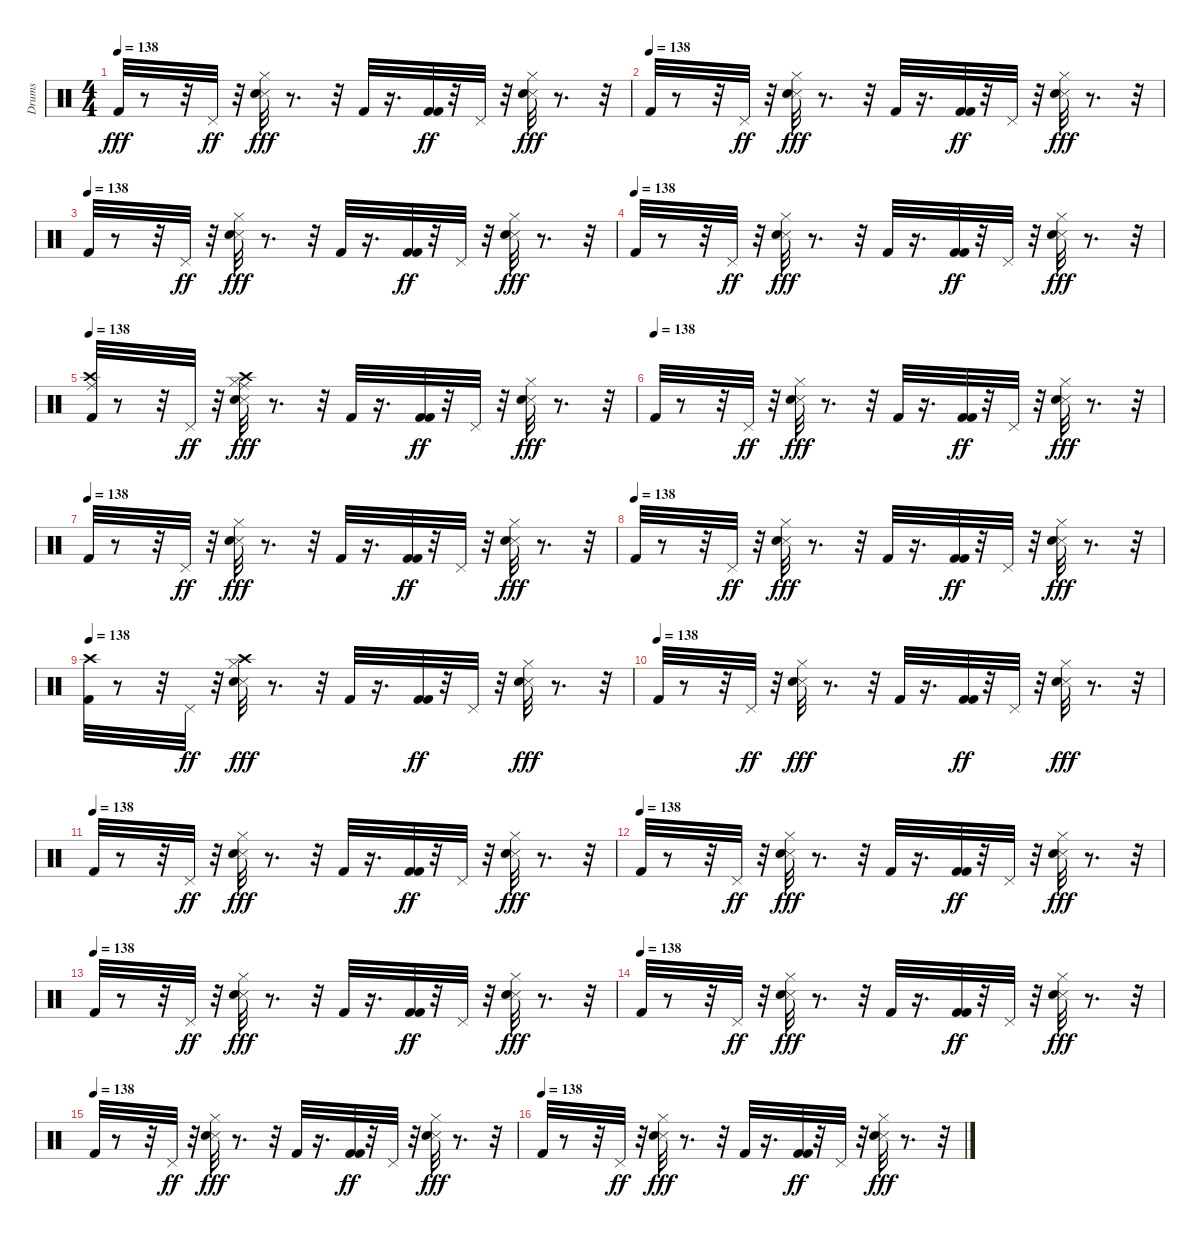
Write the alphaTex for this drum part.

\track ("Drums" "Drums") {instrument percussion}
\staff {score}
\articulation defaults
\ts (4 4)
\tempo 138
\clef neutral
\ks c "Kick (hit) 2".32{dy fff volume 10}
r.8 r.32 "Pedal Hi-Hat (hit)".32{dy ff} r.32 ("Snare (side stick) 3" "Snare (hit) 2" "Hi-Hat (closed)").32{dy fff} r.8{d} r.32 "Kick (hit) 2".32 r.16{d} ("Kick (hit) 2" "Kick (hit) 2").32{dy ff} r.32 "Pedal Hi-Hat (hit)".32 r.32 ("Snare (side stick) 3" "Snare (hit) 2" "Hi-Hat (closed)").32{dy fff} r.8{d} r.32 |
\tempo (138)
"Kick (hit) 2".32{volume 10} r.8 r.32 "Pedal Hi-Hat (hit)".32{dy ff} r.32 ("Snare (side stick) 3" "Snare (hit) 2" "Hi-Hat (closed)").32{dy fff} r.8{d} r.32 "Kick (hit) 2".32 r.16{d} ("Kick (hit) 2" "Kick (hit) 2").32{dy ff} r.32 "Pedal Hi-Hat (hit)".32 r.32 ("Snare (side stick) 3" "Snare (hit) 2" "Hi-Hat (closed)").32{dy fff} r.8{d} r.32 |
\tempo (138)
"Kick (hit) 2".32{volume 10} r.8 r.32 "Pedal Hi-Hat (hit)".32{dy ff} r.32 ("Snare (side stick) 3" "Snare (hit) 2" "Hi-Hat (closed)").32{dy fff} r.8{d} r.32 "Kick (hit) 2".32 r.16{d} ("Kick (hit) 2" "Kick (hit) 2").32{dy ff} r.32 "Pedal Hi-Hat (hit)".32 r.32 ("Snare (side stick) 3" "Snare (hit) 2" "Hi-Hat (closed)").32{dy fff} r.8{d} r.32 |
\tempo (138)
"Kick (hit) 2".32{volume 10} r.8 r.32 "Pedal Hi-Hat (hit)".32{dy ff} r.32 ("Snare (side stick) 3" "Snare (hit) 2" "Hi-Hat (closed)").32{dy fff} r.8{d} r.32 "Kick (hit) 2".32 r.16{d} ("Kick (hit) 2" "Kick (hit) 2").32{dy ff} r.32 "Pedal Hi-Hat (hit)".32 r.32 ("Snare (side stick) 3" "Snare (hit) 2" "Hi-Hat (closed)").32{dy fff} r.8{d} r.32 |
\tempo 138
("Kick (hit) 2" "Crash high (hit)" "Ride (middle)").32{volume 10} r.8 r.32 "Pedal Hi-Hat (hit)".32{dy ff} r.32 ("Snare (side stick) 3" "Snare (hit) 2" "Hi-Hat (closed)" "Crash high (hit)" "Ride (middle)").32{dy fff} r.8{d} r.32 "Kick (hit) 2".32 r.16{d} ("Kick (hit) 2" "Kick (hit) 2").32{dy ff} r.32 "Pedal Hi-Hat (hit)".32 r.32 ("Snare (side stick) 3" "Snare (hit) 2" "Hi-Hat (closed)").32{dy fff} r.8{d} r.32 |
\tempo (138)
"Kick (hit) 2".32{volume 10} r.8 r.32 "Pedal Hi-Hat (hit)".32{dy ff} r.32 ("Snare (side stick) 3" "Snare (hit) 2" "Hi-Hat (closed)").32{dy fff} r.8{d} r.32 "Kick (hit) 2".32 r.16{d} ("Kick (hit) 2" "Kick (hit) 2").32{dy ff} r.32 "Pedal Hi-Hat (hit)".32 r.32 ("Snare (side stick) 3" "Snare (hit) 2" "Hi-Hat (closed)").32{dy fff} r.8{d} r.32 |
\tempo (138)
"Kick (hit) 2".32{volume 10} r.8 r.32 "Pedal Hi-Hat (hit)".32{dy ff} r.32 ("Snare (side stick) 3" "Snare (hit) 2" "Hi-Hat (closed)").32{dy fff} r.8{d} r.32 "Kick (hit) 2".32 r.16{d} ("Kick (hit) 2" "Kick (hit) 2").32{dy ff} r.32 "Pedal Hi-Hat (hit)".32 r.32 ("Snare (side stick) 3" "Snare (hit) 2" "Hi-Hat (closed)").32{dy fff} r.8{d} r.32 |
\tempo (138)
"Kick (hit) 2".32{volume 10} r.8 r.32 "Pedal Hi-Hat (hit)".32{dy ff} r.32 ("Snare (side stick) 3" "Snare (hit) 2" "Hi-Hat (closed)").32{dy fff} r.8{d} r.32 "Kick (hit) 2".32 r.16{d} ("Kick (hit) 2" "Kick (hit) 2").32{dy ff} r.32 "Pedal Hi-Hat (hit)".32 r.32 ("Snare (side stick) 3" "Snare (hit) 2" "Hi-Hat (closed)").32{dy fff} r.8{d} r.32 |
\tempo 138
("Kick (hit) 2" "Crash high (hit)").32{volume 10} r.8 r.32 "Pedal Hi-Hat (hit)".32{dy ff} r.32 ("Snare (side stick) 3" "Snare (hit) 2" "Hi-Hat (closed)" "Crash high (hit)").32{dy fff} r.8{d} r.32 "Kick (hit) 2".32 r.16{d} ("Kick (hit) 2" "Kick (hit) 2").32{dy ff} r.32 "Pedal Hi-Hat (hit)".32 r.32 ("Snare (side stick) 3" "Snare (hit) 2" "Hi-Hat (closed)").32{dy fff} r.8{d} r.32 |
\tempo (138)
"Kick (hit) 2".32{volume 10} r.8 r.32 "Pedal Hi-Hat (hit)".32{dy ff} r.32 ("Snare (side stick) 3" "Snare (hit) 2" "Hi-Hat (closed)").32{dy fff} r.8{d} r.32 "Kick (hit) 2".32 r.16{d} ("Kick (hit) 2" "Kick (hit) 2").32{dy ff} r.32 "Pedal Hi-Hat (hit)".32 r.32 ("Snare (side stick) 3" "Snare (hit) 2" "Hi-Hat (closed)").32{dy fff} r.8{d} r.32 |
\tempo (138)
"Kick (hit) 2".32{volume 10} r.8 r.32 "Pedal Hi-Hat (hit)".32{dy ff} r.32 ("Snare (side stick) 3" "Snare (hit) 2" "Hi-Hat (closed)").32{dy fff} r.8{d} r.32 "Kick (hit) 2".32 r.16{d} ("Kick (hit) 2" "Kick (hit) 2").32{dy ff} r.32 "Pedal Hi-Hat (hit)".32 r.32 ("Snare (side stick) 3" "Snare (hit) 2" "Hi-Hat (closed)").32{dy fff} r.8{d} r.32 |
\tempo (138)
"Kick (hit) 2".32{volume 10} r.8 r.32 "Pedal Hi-Hat (hit)".32{dy ff} r.32 ("Snare (side stick) 3" "Snare (hit) 2" "Hi-Hat (closed)").32{dy fff} r.8{d} r.32 "Kick (hit) 2".32 r.16{d} ("Kick (hit) 2" "Kick (hit) 2").32{dy ff} r.32 "Pedal Hi-Hat (hit)".32 r.32 ("Snare (side stick) 3" "Snare (hit) 2" "Hi-Hat (closed)").32{dy fff} r.8{d} r.32 |
\tempo (138)
"Kick (hit) 2".32{volume 10} r.8 r.32 "Pedal Hi-Hat (hit)".32{dy ff} r.32 ("Snare (side stick) 3" "Snare (hit) 2" "Hi-Hat (closed)").32{dy fff} r.8{d} r.32 "Kick (hit) 2".32 r.16{d} ("Kick (hit) 2" "Kick (hit) 2").32{dy ff} r.32 "Pedal Hi-Hat (hit)".32 r.32 ("Snare (side stick) 3" "Snare (hit) 2" "Hi-Hat (closed)").32{dy fff} r.8{d} r.32 |
\tempo (138)
"Kick (hit) 2".32{volume 10} r.8 r.32 "Pedal Hi-Hat (hit)".32{dy ff} r.32 ("Snare (side stick) 3" "Snare (hit) 2" "Hi-Hat (closed)").32{dy fff} r.8{d} r.32 "Kick (hit) 2".32 r.16{d} ("Kick (hit) 2" "Kick (hit) 2").32{dy ff} r.32 "Pedal Hi-Hat (hit)".32 r.32 ("Snare (side stick) 3" "Snare (hit) 2" "Hi-Hat (closed)").32{dy fff} r.8{d} r.32 |
\tempo (138)
"Kick (hit) 2".32{volume 10} r.8 r.32 "Pedal Hi-Hat (hit)".32{dy ff} r.32 ("Snare (side stick) 3" "Snare (hit) 2" "Hi-Hat (closed)").32{dy fff} r.8{d} r.32 "Kick (hit) 2".32 r.16{d} ("Kick (hit) 2" "Kick (hit) 2").32{dy ff} r.32 "Pedal Hi-Hat (hit)".32 r.32 ("Snare (side stick) 3" "Snare (hit) 2" "Hi-Hat (closed)").32{dy fff} r.8{d} r.32 |
\tempo (138)
"Kick (hit) 2".32{volume 10} r.8 r.32 "Pedal Hi-Hat (hit)".32{dy ff} r.32 ("Snare (side stick) 3" "Snare (hit) 2" "Hi-Hat (closed)").32{dy fff} r.8{d} r.32 "Kick (hit) 2".32 r.16{d} ("Kick (hit) 2" "Kick (hit) 2").32{dy ff} r.32 "Pedal Hi-Hat (hit)".32 r.32 ("Snare (side stick) 3" "Snare (hit) 2" "Hi-Hat (closed)").32{dy fff} r.8{d} r.32
